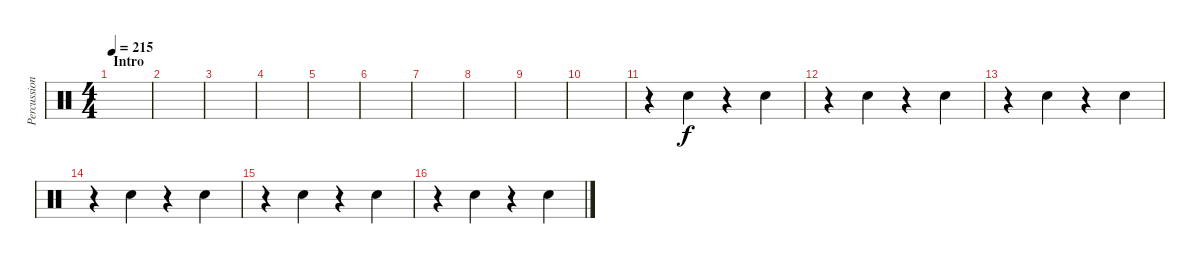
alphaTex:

\track ("Percussion" "Percussion") {instrument percussion}
\staff {score}
\articulation defaults
\ts (4 4)
\section ("" "Intro")
\tempo 215
\clef neutral
\ks c
|
|
|
|
|
|
|
|
|
|
r.4 "Snare (hit) 2".4 r.4 "Snare (hit) 2".4 |
r.4 "Snare (hit) 2".4 r.4 "Snare (hit) 2".4 |
r.4 "Snare (hit) 2".4 r.4 "Snare (hit) 2".4 |
r.4 "Snare (hit) 2".4 r.4 "Snare (hit) 2".4 |
r.4 "Snare (hit) 2".4 r.4 "Snare (hit) 2".4 |
r.4 "Snare (hit) 2".4 r.4 "Snare (hit) 2".4
